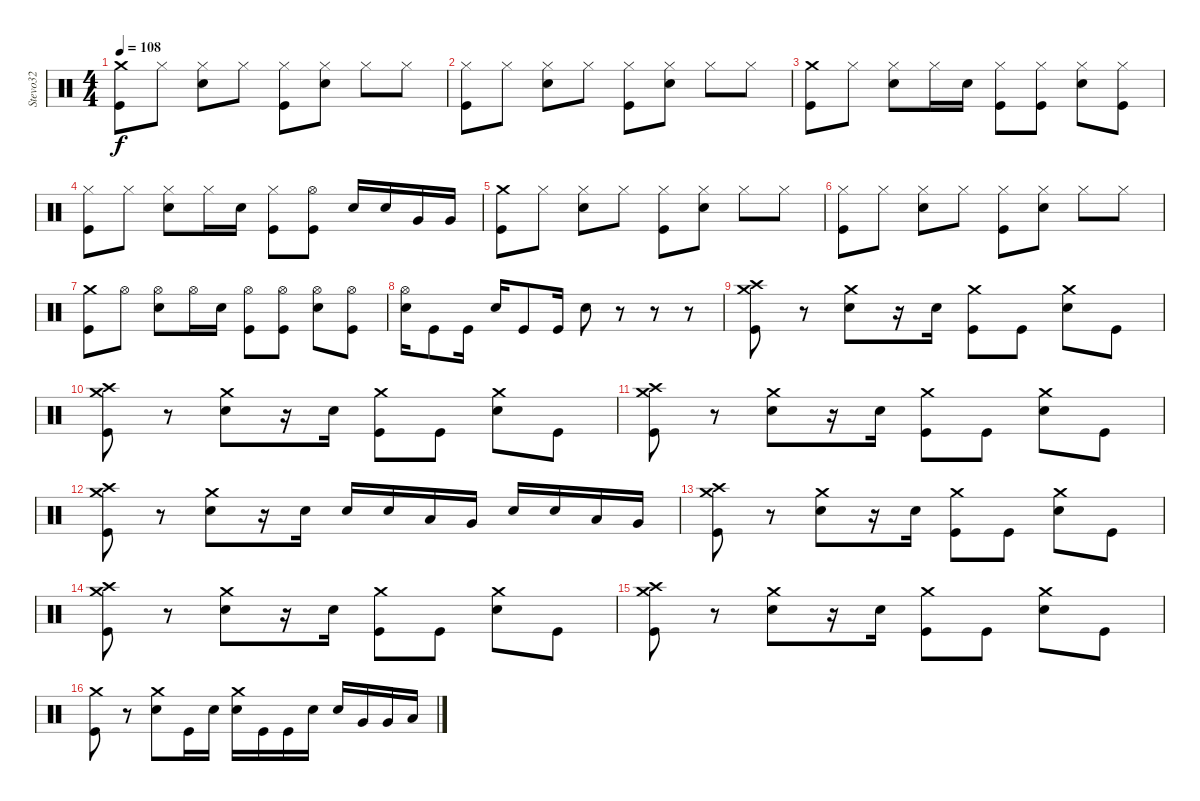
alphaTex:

\track ("Stevo32" "Stevo32") {instrument percussion}
\staff {score}
\articulation defaults
\ts (4 4)
\tempo 108
\clef neutral
\ks c
("Crash medium (hit)" "Kick (hit)").8{dy f} "Hi-Hat (closed)".8 ("Hi-Hat (closed)" "Electric Snare (hit)").8 "Hi-Hat (closed)".8 ("Hi-Hat (closed)" "Kick (hit)").8 ("Hi-Hat (closed)" "Electric Snare (hit)").8 "Hi-Hat (closed)".8 "Hi-Hat (closed)".8 |
("Hi-Hat (closed)" "Kick (hit)").8 "Hi-Hat (closed)".8 ("Hi-Hat (closed)" "Electric Snare (hit)").8 "Hi-Hat (closed)".8 ("Hi-Hat (closed)" "Kick (hit)").8 ("Hi-Hat (closed)" "Electric Snare (hit)").8 "Hi-Hat (closed)".8 "Hi-Hat (closed)".8 |
("Crash medium (hit)" "Kick (hit)").8 "Hi-Hat (closed)".8 ("Hi-Hat (closed)" "Electric Snare (hit)").8 "Hi-Hat (closed)".16 "Electric Snare (hit)".16 ("Hi-Hat (closed)" "Kick (hit)").8 ("Hi-Hat (closed)" "Kick (hit)").8 ("Hi-Hat (closed)" "Electric Snare (hit)").8 ("Hi-Hat (closed)" "Kick (hit)").8 |
("Hi-Hat (closed)" "Kick (hit)").8 "Hi-Hat (closed)".8 ("Hi-Hat (closed)" "Electric Snare (hit)").8 "Hi-Hat (closed)".16 "Electric Snare (hit)".16 ("Hi-Hat (closed)" "Kick (hit)").8 ("Hi-Hat (open)" "Kick (hit)").8 "Electric Snare (hit)".16 "Electric Snare (hit)".16 "Very Low Tom (hit)".16 "Very Low Tom (hit)".16 |
("Crash medium (hit)" "Kick (hit)").8 "Hi-Hat (closed)".8 ("Hi-Hat (closed)" "Electric Snare (hit)").8 "Hi-Hat (closed)".8 ("Hi-Hat (closed)" "Kick (hit)").8 ("Hi-Hat (closed)" "Electric Snare (hit)").8 "Hi-Hat (closed)".8 "Hi-Hat (closed)".8 |
("Hi-Hat (closed)" "Kick (hit)").8 "Hi-Hat (closed)".8 ("Hi-Hat (closed)" "Electric Snare (hit)").8 "Hi-Hat (closed)".8 ("Hi-Hat (closed)" "Kick (hit)").8 ("Hi-Hat (closed)" "Electric Snare (hit)").8 "Hi-Hat (closed)".8 "Hi-Hat (closed)".8 |
("Crash medium (hit)" "Kick (hit)").8 "Hi-Hat (open)".8 ("Hi-Hat (open)" "Electric Snare (hit)").8 "Hi-Hat (open)".16 "Electric Snare (hit)".16 ("Hi-Hat (open)" "Kick (hit)").8 ("Hi-Hat (open)" "Kick (hit)").8 ("Hi-Hat (open)" "Electric Snare (hit)").8 ("Hi-Hat (open)" "Kick (hit)").8 |
("Hi-Hat (open)" "Electric Snare (hit)").16 "Kick (hit)".8 "Kick (hit)".16 "Electric Snare (hit)".16 "Kick (hit)".8 "Kick (hit)".16 "Electric Snare (hit)".8 r.8 r.8 r.8 |
("Crash high (hit)" "Crash medium (hit)" "Kick (hit)").8 r.8 ("Crash medium (hit)" "Electric Snare (hit)").8 r.16 "Electric Snare (hit)".16 ("Crash medium (hit)" "Kick (hit)").8 "Kick (hit)".8 ("Crash medium (hit)" "Electric Snare (hit)").8 "Kick (hit)".8 |
("Crash high (hit)" "Crash medium (hit)" "Kick (hit)").8 r.8 ("Crash medium (hit)" "Electric Snare (hit)").8 r.16 "Electric Snare (hit)".16 ("Crash medium (hit)" "Kick (hit)").8 "Kick (hit)".8 ("Crash medium (hit)" "Electric Snare (hit)").8 "Kick (hit)".8 |
("Crash high (hit)" "Crash medium (hit)" "Kick (hit)").8 r.8 ("Crash medium (hit)" "Electric Snare (hit)").8 r.16 "Electric Snare (hit)".16 ("Crash medium (hit)" "Kick (hit)").8 "Kick (hit)".8 ("Crash medium (hit)" "Electric Snare (hit)").8 "Kick (hit)".8 |
("Crash high (hit)" "Crash medium (hit)" "Kick (hit)").8 r.8 ("Crash medium (hit)" "Electric Snare (hit)").8 r.16 "Electric Snare (hit)".16 "Electric Snare (hit)".16 "Electric Snare (hit)".16 "Low Tom (hit)".16 "Very Low Tom (hit)".16 "Electric Snare (hit)".16 "Electric Snare (hit)".16 "Low Tom (hit)".16 "Very Low Tom (hit)".16 |
("Crash high (hit)" "Crash medium (hit)" "Kick (hit)").8 r.8 ("Crash medium (hit)" "Electric Snare (hit)").8 r.16 "Electric Snare (hit)".16 ("Crash medium (hit)" "Kick (hit)").8 "Kick (hit)".8 ("Crash medium (hit)" "Electric Snare (hit)").8 "Kick (hit)".8 |
("Crash high (hit)" "Crash medium (hit)" "Kick (hit)").8 r.8 ("Crash medium (hit)" "Electric Snare (hit)").8 r.16 "Electric Snare (hit)".16 ("Crash medium (hit)" "Kick (hit)").8 "Kick (hit)".8 ("Crash medium (hit)" "Electric Snare (hit)").8 "Kick (hit)".8 |
("Crash high (hit)" "Crash medium (hit)" "Kick (hit)").8 r.8 ("Crash medium (hit)" "Electric Snare (hit)").8 r.16 "Electric Snare (hit)".16 ("Crash medium (hit)" "Kick (hit)").8 "Kick (hit)".8 ("Crash medium (hit)" "Electric Snare (hit)").8 "Kick (hit)".8 |
("Crash medium (hit)" "Kick (hit)").8 r.8 ("Crash medium (hit)" "Electric Snare (hit)").8 "Kick (hit)".16 "Electric Snare (hit)".16 ("Crash medium (hit)" "Electric Snare (hit)").16 "Kick (hit)".16 "Kick (hit)".16 "Electric Snare (hit)".16 "Electric Snare (hit)".16 "Very Low Tom (hit)".16 "Very Low Tom (hit)".16 "Low Floor Tom (hit)".16
